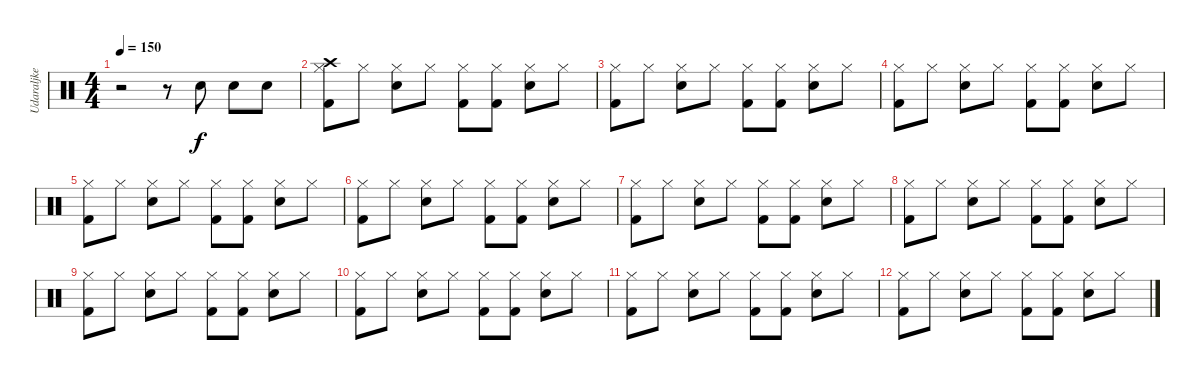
\track ("Udaraljke" "Udaraljke") {instrument percussion}
\staff {score}
\articulation defaults
\ts (4 4)
\tempo 150
\clef neutral
\ks c
r.2{dy f} r.8 "Snare (hit) 2".8 "Snare (hit) 2".8 "Snare (hit) 2".8 |
("Crash high (hit)" "Kick (hit) 2" "Hi-Hat (closed)").8 "Hi-Hat (closed)".8 ("Snare (hit) 2" "Hi-Hat (closed)").8 "Hi-Hat (closed)".8 ("Kick (hit) 2" "Hi-Hat (closed)").8 ("Kick (hit) 2" "Hi-Hat (closed)").8 ("Snare (hit) 2" "Hi-Hat (closed)").8 "Hi-Hat (closed)".8 |
("Hi-Hat (closed)" "Kick (hit) 2").8 "Hi-Hat (closed)".8 ("Hi-Hat (closed)" "Snare (hit) 2").8 "Hi-Hat (closed)".8 ("Hi-Hat (closed)" "Kick (hit) 2").8 ("Hi-Hat (closed)" "Kick (hit) 2").8 ("Hi-Hat (closed)" "Snare (hit) 2").8 "Hi-Hat (closed)".8 |
("Hi-Hat (closed)" "Kick (hit) 2").8 "Hi-Hat (closed)".8 ("Hi-Hat (closed)" "Snare (hit) 2").8 "Hi-Hat (closed)".8 ("Hi-Hat (closed)" "Kick (hit) 2").8 ("Hi-Hat (closed)" "Kick (hit) 2").8 ("Hi-Hat (closed)" "Snare (hit) 2").8 "Hi-Hat (closed)".8 |
("Hi-Hat (closed)" "Kick (hit) 2").8 "Hi-Hat (closed)".8 ("Hi-Hat (closed)" "Snare (hit) 2").8 "Hi-Hat (closed)".8 ("Hi-Hat (closed)" "Kick (hit) 2").8 ("Hi-Hat (closed)" "Kick (hit) 2").8 ("Hi-Hat (closed)" "Snare (hit) 2").8 "Hi-Hat (closed)".8 |
("Hi-Hat (closed)" "Kick (hit) 2").8 "Hi-Hat (closed)".8 ("Hi-Hat (closed)" "Snare (hit) 2").8 "Hi-Hat (closed)".8 ("Hi-Hat (closed)" "Kick (hit) 2").8 ("Hi-Hat (closed)" "Kick (hit) 2").8 ("Hi-Hat (closed)" "Snare (hit) 2").8 "Hi-Hat (closed)".8 |
("Hi-Hat (closed)" "Kick (hit) 2").8 "Hi-Hat (closed)".8 ("Hi-Hat (closed)" "Snare (hit) 2").8 "Hi-Hat (closed)".8 ("Hi-Hat (closed)" "Kick (hit) 2").8 ("Hi-Hat (closed)" "Kick (hit) 2").8 ("Hi-Hat (closed)" "Snare (hit) 2").8 "Hi-Hat (closed)".8 |
("Hi-Hat (closed)" "Kick (hit) 2").8 "Hi-Hat (closed)".8 ("Hi-Hat (closed)" "Snare (hit) 2").8 "Hi-Hat (closed)".8 ("Hi-Hat (closed)" "Kick (hit) 2").8 ("Hi-Hat (closed)" "Kick (hit) 2").8 ("Hi-Hat (closed)" "Snare (hit) 2").8 "Hi-Hat (closed)".8 |
("Hi-Hat (closed)" "Kick (hit) 2").8 "Hi-Hat (closed)".8 ("Hi-Hat (closed)" "Snare (hit) 2").8 "Hi-Hat (closed)".8 ("Hi-Hat (closed)" "Kick (hit) 2").8 ("Hi-Hat (closed)" "Kick (hit) 2").8 ("Hi-Hat (closed)" "Snare (hit) 2").8 "Hi-Hat (closed)".8 |
("Hi-Hat (closed)" "Kick (hit) 2").8 "Hi-Hat (closed)".8 ("Hi-Hat (closed)" "Snare (hit) 2").8 "Hi-Hat (closed)".8 ("Hi-Hat (closed)" "Kick (hit) 2").8 ("Hi-Hat (closed)" "Kick (hit) 2").8 ("Hi-Hat (closed)" "Snare (hit) 2").8 "Hi-Hat (closed)".8 |
("Hi-Hat (closed)" "Kick (hit) 2").8 "Hi-Hat (closed)".8 ("Hi-Hat (closed)" "Snare (hit) 2").8 "Hi-Hat (closed)".8 ("Hi-Hat (closed)" "Kick (hit) 2").8 ("Hi-Hat (closed)" "Kick (hit) 2").8 ("Hi-Hat (closed)" "Snare (hit) 2").8 "Hi-Hat (closed)".8 |
("Hi-Hat (closed)" "Kick (hit) 2").8 "Hi-Hat (closed)".8 ("Hi-Hat (closed)" "Snare (hit) 2").8 "Hi-Hat (closed)".8 ("Hi-Hat (closed)" "Kick (hit) 2").8 ("Hi-Hat (closed)" "Kick (hit) 2").8 ("Hi-Hat (closed)" "Snare (hit) 2").8 "Hi-Hat (closed)".8
